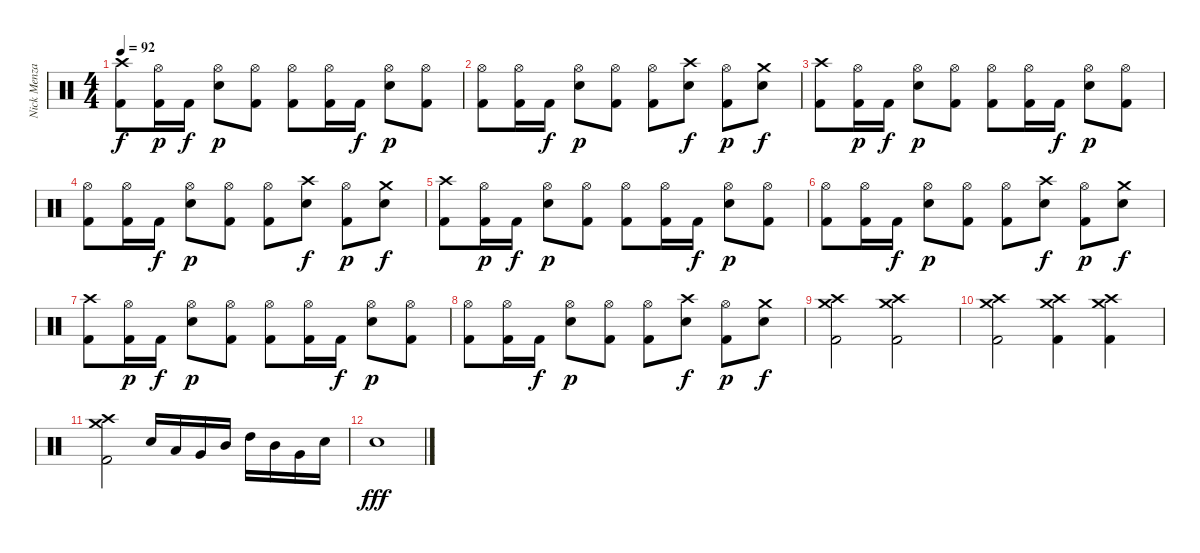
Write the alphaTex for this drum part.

\track ("Nick Menza" "Nick Menza") {instrument percussion}
\staff {score}
\articulation defaults
\ts (4 4)
\tempo 92
\clef neutral
\ks c
("Crash high (hit)" "Kick (hit) 2").8{dy f} ("Hi-Hat (open)" "Kick (hit) 2").16{dy p} "Kick (hit) 2".16{dy f} ("Hi-Hat (open)" "Electric Snare (hit)").8{dy p} ("Hi-Hat (open)" "Kick (hit) 2").8 ("Hi-Hat (open)" "Kick (hit) 2").8 ("Hi-Hat (open)" "Kick (hit) 2").16 "Kick (hit) 2".16{dy f} ("Hi-Hat (open)" "Electric Snare (hit)").8{dy p} ("Hi-Hat (open)" "Kick (hit) 2").8 |
("Hi-Hat (open)" "Kick (hit) 2").8 ("Hi-Hat (open)" "Kick (hit) 2").16 "Kick (hit) 2".16{dy f} ("Hi-Hat (open)" "Electric Snare (hit)").8{dy p} ("Hi-Hat (open)" "Kick (hit) 2").8 ("Hi-Hat (open)" "Kick (hit) 2").8 ("Crash high (hit)" "Electric Snare (hit)").8{dy f} ("Hi-Hat (open)" "Kick (hit) 2").8{dy p} ("Crash medium (hit)" "Electric Snare (hit)").8{dy f} |
("Crash high (hit)" "Kick (hit) 2").8 ("Hi-Hat (open)" "Kick (hit) 2").16{dy p} "Kick (hit) 2".16{dy f} ("Hi-Hat (open)" "Electric Snare (hit)").8{dy p} ("Hi-Hat (open)" "Kick (hit) 2").8 ("Hi-Hat (open)" "Kick (hit) 2").8 ("Hi-Hat (open)" "Kick (hit) 2").16 "Kick (hit) 2".16{dy f} ("Hi-Hat (open)" "Electric Snare (hit)").8{dy p} ("Hi-Hat (open)" "Kick (hit) 2").8 |
("Hi-Hat (open)" "Kick (hit) 2").8 ("Hi-Hat (open)" "Kick (hit) 2").16 "Kick (hit) 2".16{dy f} ("Hi-Hat (open)" "Electric Snare (hit)").8{dy p} ("Hi-Hat (open)" "Kick (hit) 2").8 ("Hi-Hat (open)" "Kick (hit) 2").8 ("Crash high (hit)" "Electric Snare (hit)").8{dy f} ("Hi-Hat (open)" "Kick (hit) 2").8{dy p} ("Crash medium (hit)" "Electric Snare (hit)").8{dy f} |
("Crash high (hit)" "Kick (hit) 2").8 ("Hi-Hat (open)" "Kick (hit) 2").16{dy p} "Kick (hit) 2".16{dy f} ("Hi-Hat (open)" "Electric Snare (hit)").8{dy p} ("Hi-Hat (open)" "Kick (hit) 2").8 ("Hi-Hat (open)" "Kick (hit) 2").8 ("Hi-Hat (open)" "Kick (hit) 2").16 "Kick (hit) 2".16{dy f} ("Hi-Hat (open)" "Electric Snare (hit)").8{dy p} ("Hi-Hat (open)" "Kick (hit) 2").8 |
("Hi-Hat (open)" "Kick (hit) 2").8 ("Hi-Hat (open)" "Kick (hit) 2").16 "Kick (hit) 2".16{dy f} ("Hi-Hat (open)" "Electric Snare (hit)").8{dy p} ("Hi-Hat (open)" "Kick (hit) 2").8 ("Hi-Hat (open)" "Kick (hit) 2").8 ("Crash high (hit)" "Electric Snare (hit)").8{dy f} ("Hi-Hat (open)" "Kick (hit) 2").8{dy p} ("Crash medium (hit)" "Electric Snare (hit)").8{dy f} |
("Crash high (hit)" "Kick (hit) 2").8 ("Hi-Hat (open)" "Kick (hit) 2").16{dy p} "Kick (hit) 2".16{dy f} ("Hi-Hat (open)" "Electric Snare (hit)").8{dy p} ("Hi-Hat (open)" "Kick (hit) 2").8 ("Hi-Hat (open)" "Kick (hit) 2").8 ("Hi-Hat (open)" "Kick (hit) 2").16 "Kick (hit) 2".16{dy f} ("Hi-Hat (open)" "Electric Snare (hit)").8{dy p} ("Hi-Hat (open)" "Kick (hit) 2").8 |
("Hi-Hat (open)" "Kick (hit) 2").8 ("Hi-Hat (open)" "Kick (hit) 2").16 "Kick (hit) 2".16{dy f} ("Hi-Hat (open)" "Electric Snare (hit)").8{dy p} ("Hi-Hat (open)" "Kick (hit) 2").8 ("Hi-Hat (open)" "Kick (hit) 2").8 ("Crash high (hit)" "Electric Snare (hit)").8{dy f} ("Hi-Hat (open)" "Kick (hit) 2").8{dy p} ("Crash medium (hit)" "Electric Snare (hit)").8{dy f} |
("Crash medium (hit)" "Crash high (hit)" "Kick (hit) 2").2 ("Crash medium (hit)" "Crash high (hit)" "Kick (hit) 2").2 |
("Crash medium (hit)" "Crash high (hit)" "Kick (hit) 2").2 ("Crash medium (hit)" "Crash high (hit)" "Kick (hit) 2").4 ("Crash medium (hit)" "Crash high (hit)" "Kick (hit) 2").4 |
("Crash medium (hit)" "Crash high (hit)" "Kick (hit) 2").2 "Electric Snare (hit)".16 "Low Tom (hit)".16 "Very Low Tom (hit)".16 "Mid Tom (hit)".16 "High Tom (hit)".16 "Mid Tom (hit)".16 "Very Low Tom (hit)".16 "Electric Snare (hit)".16 |
"Snare (hit) 2".1{dy fff}
